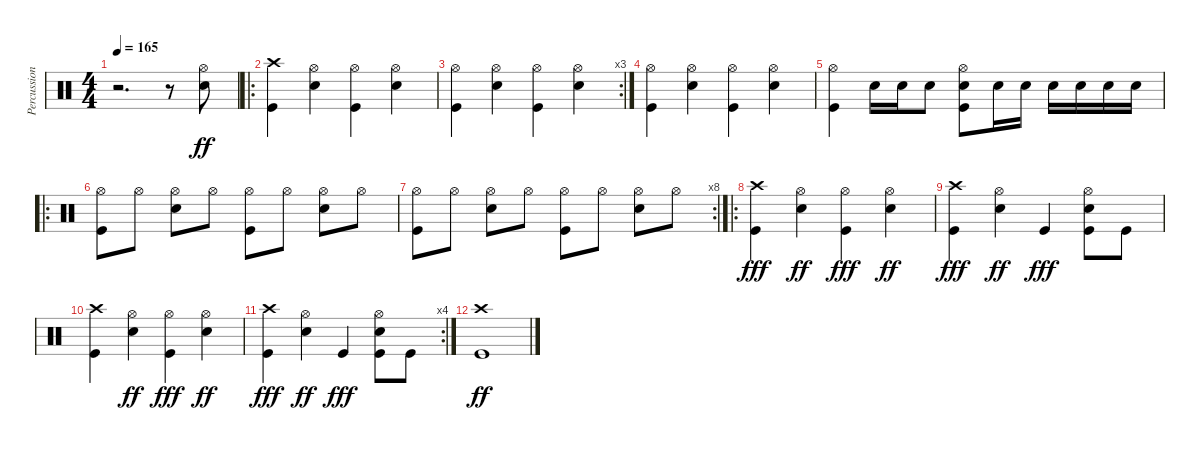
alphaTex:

\track ("Percussioni" "Percussion") {instrument percussion}
\staff {score}
\articulation defaults
\ts (4 4)
\tempo 165
\clef neutral
\ks c
r.2{d dy ff} r.8 ("Hi-Hat (open)" "Electric Snare (hit)").8 |
\ro
("Crash high (hit)" "Kick (hit)").4 ("Hi-Hat (open)" "Electric Snare (hit)").4 ("Hi-Hat (open)" "Kick (hit)").4 ("Hi-Hat (open)" "Electric Snare (hit)").4 |
\rc 3
("Hi-Hat (open)" "Kick (hit)").4 ("Hi-Hat (open)" "Electric Snare (hit)").4 ("Hi-Hat (open)" "Kick (hit)").4 ("Hi-Hat (open)" "Electric Snare (hit)").4 |
("Hi-Hat (open)" "Kick (hit)").4 ("Hi-Hat (open)" "Electric Snare (hit)").4 ("Hi-Hat (open)" "Kick (hit)").4 ("Hi-Hat (open)" "Electric Snare (hit)").4 |
("Hi-Hat (open)" "Kick (hit)").4 "Electric Snare (hit)".16 "Electric Snare (hit)".16 "Electric Snare (hit)".8 ("Hi-Hat (open)" "Electric Snare (hit)" "Kick (hit)").8 "Electric Snare (hit)".16 "Electric Snare (hit)".16 "Electric Snare (hit)".16 "Electric Snare (hit)".16 "Electric Snare (hit)".16 "Electric Snare (hit)".16 |
\ro
("Hi-Hat (open)" "Kick (hit)").8 "Hi-Hat (open)".8 ("Hi-Hat (open)" "Electric Snare (hit)").8 "Hi-Hat (open)".8 ("Hi-Hat (open)" "Kick (hit)").8 "Hi-Hat (open)".8 ("Hi-Hat (open)" "Electric Snare (hit)").8 "Hi-Hat (open)".8 |
\rc 8
("Hi-Hat (open)" "Kick (hit)").8 "Hi-Hat (open)".8 ("Hi-Hat (open)" "Electric Snare (hit)").8 "Hi-Hat (open)".8 ("Hi-Hat (open)" "Kick (hit)").8 "Hi-Hat (open)".8 ("Hi-Hat (open)" "Electric Snare (hit)").8 "Hi-Hat (open)".8 |
\ro
("Crash high (hit)" "Kick (hit)").4{dy fff} ("Hi-Hat (open)" "Electric Snare (hit)").4{dy ff} ("Hi-Hat (open)" "Kick (hit)").4{dy fff} ("Hi-Hat (open)" "Electric Snare (hit)").4{dy ff} |
("Crash high (hit)" "Kick (hit)").4{dy fff} ("Hi-Hat (open)" "Electric Snare (hit)").4{dy ff} "Kick (hit)".4{dy fff} ("Hi-Hat (open)" "Electric Snare (hit)" "Kick (hit)").8 "Kick (hit)".8 |
("Crash high (hit)" "Kick (hit)").4 ("Hi-Hat (open)" "Electric Snare (hit)").4{dy ff} ("Hi-Hat (open)" "Kick (hit)").4{dy fff} ("Hi-Hat (open)" "Electric Snare (hit)").4{dy ff} |
\rc 4
("Crash high (hit)" "Kick (hit)").4{dy fff} ("Hi-Hat (open)" "Electric Snare (hit)").4{dy ff} "Kick (hit)".4{dy fff} ("Hi-Hat (open)" "Electric Snare (hit)" "Kick (hit)").8 "Kick (hit)".8 |
("Crash high (hit)" "Kick (hit)").1{dy ff}
